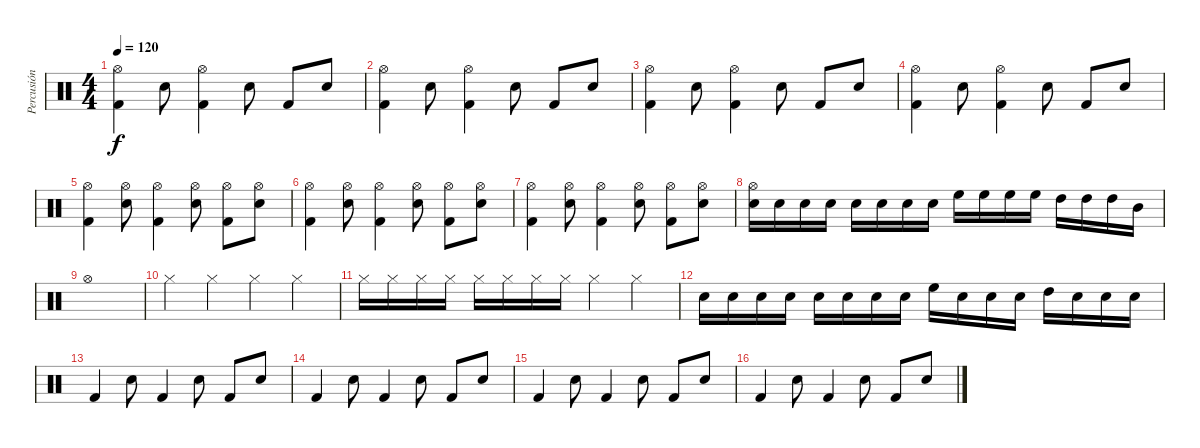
\track ("Percusión" "Percusión") {instrument percussion}
\staff {score}
\articulation defaults
\ts (4 4)
\tempo 120
\clef neutral
\ks c
("Kick (hit) 2" "Hi-Hat (open)").4{dy f} "Snare (hit) 2".8 ("Kick (hit) 2" "Hi-Hat (open)").4 "Electric Snare (hit)".8 "Kick (hit) 2".8 "Snare (hit) 2".8 |
("Kick (hit) 2" "Hi-Hat (open)").4 "Snare (hit) 2".8 ("Kick (hit) 2" "Hi-Hat (open)").4 "Electric Snare (hit)".8 "Kick (hit) 2".8 "Snare (hit) 2".8 |
("Kick (hit) 2" "Hi-Hat (open)").4 "Snare (hit) 2".8 ("Kick (hit) 2" "Hi-Hat (open)").4 "Electric Snare (hit)".8 "Kick (hit) 2".8 "Snare (hit) 2".8 |
("Kick (hit) 2" "Hi-Hat (open)").4 "Snare (hit) 2".8 ("Kick (hit) 2" "Hi-Hat (open)").4 "Electric Snare (hit)".8 "Kick (hit) 2".8 "Snare (hit) 2".8 |
("Kick (hit) 2" "Hi-Hat (open)").4 ("Snare (hit) 2" "Hi-Hat (open)").8 ("Kick (hit) 2" "Hi-Hat (open)").4 ("Electric Snare (hit)" "Hi-Hat (open)").8 ("Kick (hit) 2" "Hi-Hat (open)").8 ("Snare (hit) 2" "Hi-Hat (open)").8 |
("Kick (hit) 2" "Hi-Hat (open)").4 ("Snare (hit) 2" "Hi-Hat (open)").8 ("Kick (hit) 2" "Hi-Hat (open)").4 ("Electric Snare (hit)" "Hi-Hat (open)").8 ("Kick (hit) 2" "Hi-Hat (open)").8 ("Snare (hit) 2" "Hi-Hat (open)").8 |
("Kick (hit) 2" "Hi-Hat (open)").4 ("Snare (hit) 2" "Hi-Hat (open)").8 ("Kick (hit) 2" "Hi-Hat (open)").4 ("Electric Snare (hit)" "Hi-Hat (open)").8 ("Kick (hit) 2" "Hi-Hat (open)").8 ("Snare (hit) 2" "Hi-Hat (open)").8 |
("Snare (hit) 2" "Hi-Hat (open)").16 "Snare (hit) 2".16 "Snare (hit) 2".16 "Snare (hit) 2".16 "Snare (hit) 2".16 "Snare (hit) 2".16 "Snare (hit) 2".16 "Snare (hit) 2".16 "High Floor Tom (hit)".16 "High Floor Tom (hit)".16 "High Floor Tom (hit)".16 "High Floor Tom (hit)".16 "High Tom (hit)".16 "High Tom (hit)".16 "High Tom (hit)".16 "Mid Tom (hit)".16 |
"Hi-Hat (open)".1 |
"Hi-Hat (closed)".4 "Hi-Hat (closed)".4 "Hi-Hat (closed)".4 "Hi-Hat (closed)".4 |
"Hi-Hat (closed)".16 "Hi-Hat (closed)".16 "Hi-Hat (closed)".16 "Hi-Hat (closed)".16 "Hi-Hat (closed)".16 "Hi-Hat (closed)".16 "Hi-Hat (closed)".16 "Hi-Hat (closed)".16 "Hi-Hat (closed)".4 "Hi-Hat (closed)".4 |
"Snare (hit) 2".16 "Snare (hit) 2".16 "Snare (hit) 2".16 "Snare (hit) 2".16 "Snare (hit) 2".16 "Snare (hit) 2".16 "Snare (hit) 2".16 "Snare (hit) 2".16 "High Floor Tom (hit)".16 "Electric Snare (hit)".16 "Electric Snare (hit)".16 "Electric Snare (hit)".16 "High Tom (hit)".16 "Electric Snare (hit)".16 "Electric Snare (hit)".16 "Electric Snare (hit)".16 |
"Kick (hit) 2".4 "Snare (hit) 2".8 "Kick (hit) 2".4 "Electric Snare (hit)".8 "Kick (hit) 2".8 "Snare (hit) 2".8 |
"Kick (hit) 2".4 "Snare (hit) 2".8 "Kick (hit) 2".4 "Electric Snare (hit)".8 "Kick (hit) 2".8 "Snare (hit) 2".8 |
"Kick (hit) 2".4 "Snare (hit) 2".8 "Kick (hit) 2".4 "Electric Snare (hit)".8 "Kick (hit) 2".8 "Snare (hit) 2".8 |
"Kick (hit) 2".4 "Snare (hit) 2".8 "Kick (hit) 2".4 "Electric Snare (hit)".8 "Kick (hit) 2".8 "Snare (hit) 2".8
